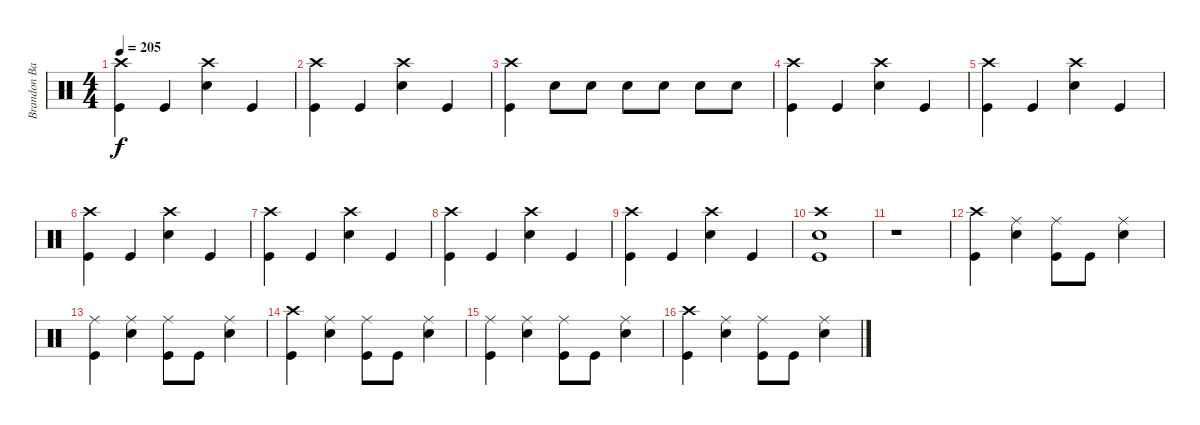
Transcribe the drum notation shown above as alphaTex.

\track ("Brandon Barnes" "Brandon Ba") {instrument percussion}
\staff {score}
\articulation defaults
\ts (4 4)
\tempo 205
\clef neutral
\ks c
("Kick (hit)" "Crash high (hit)").4{dy f} "Kick (hit)".4 ("Electric Snare (hit)" "Crash high (hit)").4 "Kick (hit)".4 |
("Kick (hit)" "Crash high (hit)").4 "Kick (hit)".4 ("Electric Snare (hit)" "Crash high (hit)").4 "Kick (hit)".4 |
("Kick (hit)" "Crash high (hit)").4 "Electric Snare (hit)".8 "Electric Snare (hit)".8 "Electric Snare (hit)".8 "Electric Snare (hit)".8 "Electric Snare (hit)".8 "Electric Snare (hit)".8 |
("Kick (hit)" "Crash high (hit)").4 "Kick (hit)".4 ("Electric Snare (hit)" "Crash high (hit)").4 "Kick (hit)".4 |
("Kick (hit)" "Crash high (hit)").4 "Kick (hit)".4 ("Electric Snare (hit)" "Crash high (hit)").4 "Kick (hit)".4 |
("Kick (hit)" "Crash high (hit)").4 "Kick (hit)".4 ("Electric Snare (hit)" "Crash high (hit)").4 "Kick (hit)".4 |
("Kick (hit)" "Crash high (hit)").4 "Kick (hit)".4 ("Electric Snare (hit)" "Crash high (hit)").4 "Kick (hit)".4 |
("Kick (hit)" "Crash high (hit)").4 "Kick (hit)".4 ("Electric Snare (hit)" "Crash high (hit)").4 "Kick (hit)".4 |
("Kick (hit)" "Crash high (hit)").4 "Kick (hit)".4 ("Electric Snare (hit)" "Crash high (hit)").4 "Kick (hit)".4 |
("Electric Snare (hit)" "Kick (hit)" "Crash high (hit)").1 |
r.1 |
("Kick (hit)" "Crash high (hit)").4 ("Electric Snare (hit)" "Ride (middle)").4 ("Kick (hit)" "Ride (middle)").8 "Kick (hit)".8 ("Electric Snare (hit)" "Ride (middle)").4 |
("Kick (hit)" "Ride (middle)").4 ("Electric Snare (hit)" "Ride (middle)").4 ("Kick (hit)" "Ride (middle)").8 "Kick (hit)".8 ("Electric Snare (hit)" "Ride (middle)").4 |
("Kick (hit)" "Crash high (hit)").4 ("Electric Snare (hit)" "Ride (middle)").4 ("Kick (hit)" "Ride (middle)").8 "Kick (hit)".8 ("Electric Snare (hit)" "Ride (middle)").4 |
("Kick (hit)" "Ride (middle)").4 ("Electric Snare (hit)" "Ride (middle)").4 ("Kick (hit)" "Ride (middle)").8 "Kick (hit)".8 ("Electric Snare (hit)" "Ride (middle)").4 |
("Kick (hit)" "Crash high (hit)").4 ("Electric Snare (hit)" "Ride (middle)").4 ("Kick (hit)" "Ride (middle)").8 "Kick (hit)".8 ("Electric Snare (hit)" "Ride (middle)").4
